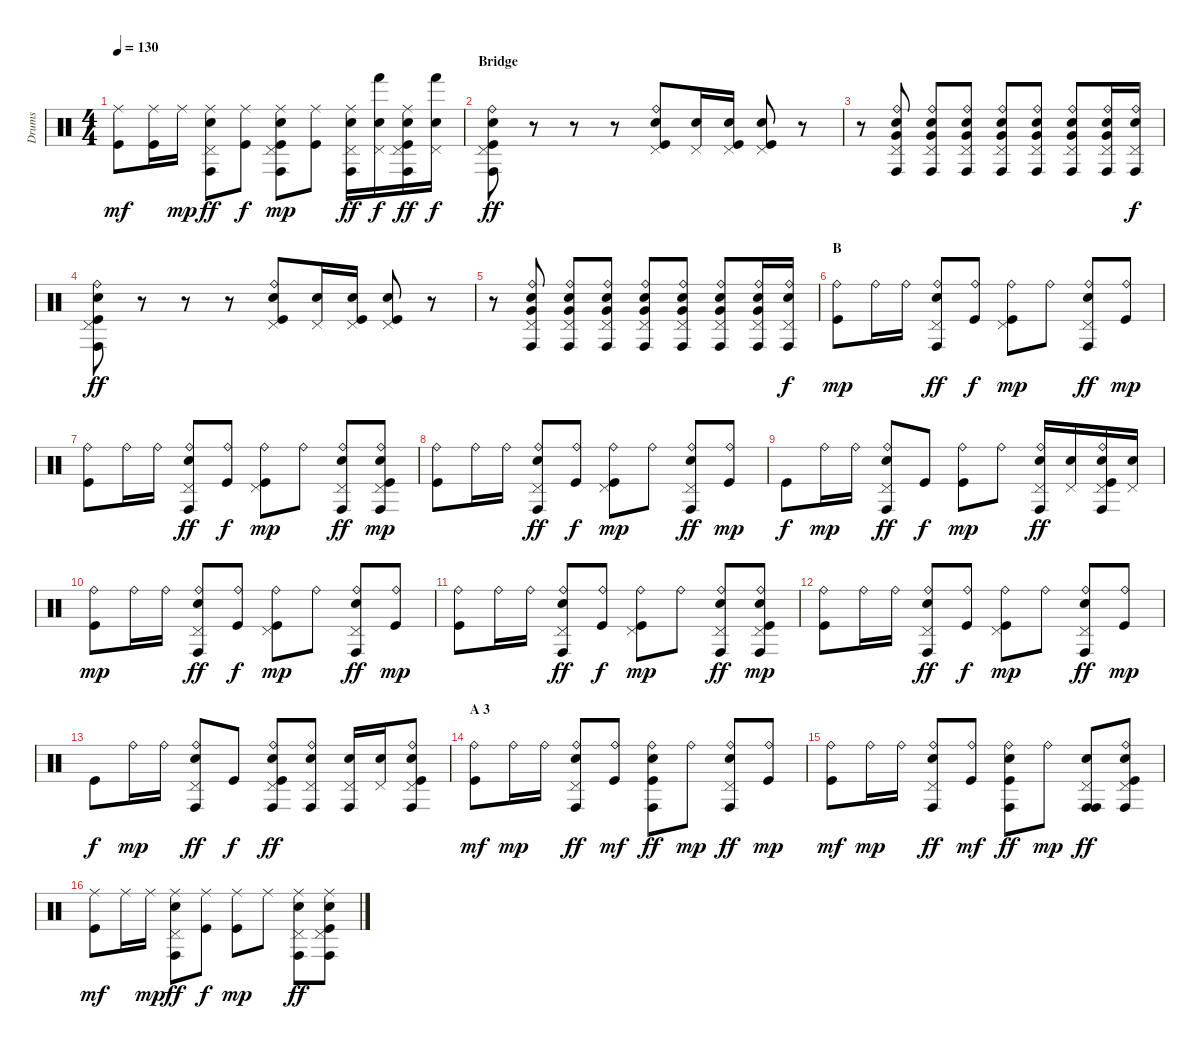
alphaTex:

\track ("Drums" "Drums") {instrument percussion}
\staff {score}
\articulation defaults
\ts (4 4)
\tempo 130
\clef neutral
\ks c
("Ride (middle)" "Kick (hit)").8{dy mf} ("Ride (middle)" "Kick (hit)").16 "Ride (middle)".16{dy mp} ("Ride (middle)" "Pedal Hi-Hat (hit)" "Conga high (hit)" "Electric Snare (hit)").8{dy ff} ("Ride (middle)" "Kick (hit)").8{dy f} ("Ride (middle)" "Pedal Hi-Hat (hit)" "Conga high (hit)" "Electric Snare (hit)" "Kick (hit)").8{dy mp} ("Ride (middle)" "Kick (hit)").8 ("Ride (middle)" "Pedal Hi-Hat (hit)" "Conga high (hit)" "Electric Snare (hit)").16{dy ff} ("Pedal Hi-Hat (hit)" "Hand (hit)" "Electric Snare (hit)").16{dy f} ("Ride (middle)" "Pedal Hi-Hat (hit)" "Conga high (hit)" "Electric Snare (hit)" "Kick (hit)").16{dy ff} ("Pedal Hi-Hat (hit)" "Hand (hit)" "Electric Snare (hit)").16{dy f} |
\section ("" "Bridge")
("Ride (bell)" "Pedal Hi-Hat (hit)" "Conga high (hit)" "Electric Snare (hit)" "Kick (hit)").8{dy ff} r.8 r.8 r.8 ("Ride (bell)" "Pedal Hi-Hat (hit)" "Electric Snare (hit)" "Kick (hit)").8 ("Pedal Hi-Hat (hit)" "Electric Snare (hit)").16 ("Pedal Hi-Hat (hit)" "Electric Snare (hit)" "Kick (hit)").16 ("Pedal Hi-Hat (hit)" "Electric Snare (hit)" "Kick (hit)").8 r.8 |
r.8 ("Ride (bell)" "Pedal Hi-Hat (hit)" "Conga high (hit)" "Electric Snare (hit)" "Very Low Tom (hit)").8 ("Ride (bell)" "Pedal Hi-Hat (hit)" "Conga high (hit)" "Electric Snare (hit)" "Very Low Tom (hit)").8 ("Ride (bell)" "Pedal Hi-Hat (hit)" "Conga high (hit)" "Electric Snare (hit)" "Very Low Tom (hit)").8 ("Ride (bell)" "Pedal Hi-Hat (hit)" "Conga high (hit)" "Electric Snare (hit)" "Very Low Tom (hit)").8 ("Ride (bell)" "Pedal Hi-Hat (hit)" "Conga high (hit)" "Electric Snare (hit)" "Very Low Tom (hit)").8 ("Ride (bell)" "Pedal Hi-Hat (hit)" "Conga high (hit)" "Electric Snare (hit)" "Very Low Tom (hit)").8 ("Ride (bell)" "Pedal Hi-Hat (hit)" "Conga high (hit)" "Electric Snare (hit)" "Very Low Tom (hit)").16 ("Ride (bell)" "Pedal Hi-Hat (hit)" "Conga high (hit)" "Electric Snare (hit)").16{dy f} |
("Ride (bell)" "Pedal Hi-Hat (hit)" "Conga high (hit)" "Electric Snare (hit)" "Kick (hit)").8{dy ff} r.8 r.8 r.8 ("Ride (bell)" "Pedal Hi-Hat (hit)" "Electric Snare (hit)" "Kick (hit)").8 ("Pedal Hi-Hat (hit)" "Electric Snare (hit)").16 ("Pedal Hi-Hat (hit)" "Electric Snare (hit)" "Kick (hit)").16 ("Pedal Hi-Hat (hit)" "Electric Snare (hit)" "Kick (hit)").8 r.8 |
r.8 ("Ride (bell)" "Pedal Hi-Hat (hit)" "Conga high (hit)" "Electric Snare (hit)" "Very Low Tom (hit)").8 ("Ride (bell)" "Pedal Hi-Hat (hit)" "Conga high (hit)" "Electric Snare (hit)" "Very Low Tom (hit)").8 ("Ride (bell)" "Pedal Hi-Hat (hit)" "Conga high (hit)" "Electric Snare (hit)" "Very Low Tom (hit)").8 ("Ride (bell)" "Pedal Hi-Hat (hit)" "Conga high (hit)" "Electric Snare (hit)" "Very Low Tom (hit)").8 ("Ride (bell)" "Pedal Hi-Hat (hit)" "Conga high (hit)" "Electric Snare (hit)" "Very Low Tom (hit)").8 ("Ride (bell)" "Pedal Hi-Hat (hit)" "Conga high (hit)" "Electric Snare (hit)" "Very Low Tom (hit)").8 ("Ride (bell)" "Pedal Hi-Hat (hit)" "Conga high (hit)" "Electric Snare (hit)" "Very Low Tom (hit)").16 ("Ride (bell)" "Pedal Hi-Hat (hit)" "Conga high (hit)" "Electric Snare (hit)").16{dy f} |
\section ("" "B")
("Ride (bell)" "Kick (hit)").8{dy mp} "Ride (bell)".16 "Ride (bell)".16 ("Ride (bell)" "Pedal Hi-Hat (hit)" "Conga high (hit)" "Electric Snare (hit)").8{dy ff} ("Ride (bell)" "Kick (hit)").8{dy f} ("Ride (bell)" "Pedal Hi-Hat (hit)" "Kick (hit)").8{dy mp} "Ride (bell)".8 ("Ride (bell)" "Pedal Hi-Hat (hit)" "Conga high (hit)" "Electric Snare (hit)").8{dy ff} ("Ride (bell)" "Kick (hit)").8{dy mp} |
("Ride (bell)" "Kick (hit)").8 "Ride (bell)".16 "Ride (bell)".16 ("Ride (bell)" "Pedal Hi-Hat (hit)" "Conga high (hit)" "Electric Snare (hit)").8{dy ff} ("Ride (bell)" "Kick (hit)").8{dy f} ("Ride (bell)" "Pedal Hi-Hat (hit)" "Kick (hit)").8{dy mp} "Ride (bell)".8 ("Ride (bell)" "Pedal Hi-Hat (hit)" "Conga high (hit)" "Electric Snare (hit)").8{dy ff} ("Ride (bell)" "Pedal Hi-Hat (hit)" "Conga high (hit)" "Electric Snare (hit)" "Kick (hit)").8{dy mp} |
("Ride (bell)" "Kick (hit)").8 "Ride (bell)".16 "Ride (bell)".16 ("Ride (bell)" "Pedal Hi-Hat (hit)" "Conga high (hit)" "Electric Snare (hit)").8{dy ff} ("Ride (bell)" "Kick (hit)").8{dy f} ("Ride (bell)" "Pedal Hi-Hat (hit)" "Kick (hit)").8{dy mp} "Ride (bell)".8 ("Ride (bell)" "Pedal Hi-Hat (hit)" "Conga high (hit)" "Electric Snare (hit)").8{dy ff} ("Ride (bell)" "Kick (hit)").8{dy mp} |
"Kick (hit)".8{dy f} "Ride (bell)".16{dy mp} "Ride (bell)".16 ("Ride (bell)" "Pedal Hi-Hat (hit)" "Conga high (hit)" "Electric Snare (hit)").8{dy ff} "Kick (hit)".8{dy f} ("Ride (bell)" "Kick (hit)").8{dy mp} "Ride (bell)".8 ("Ride (bell)" "Pedal Hi-Hat (hit)" "Conga high (hit)" "Electric Snare (hit)").16{dy ff} ("Pedal Hi-Hat (hit)" "Electric Snare (hit)").16 ("Ride (bell)" "Pedal Hi-Hat (hit)" "Conga high (hit)" "Electric Snare (hit)" "Kick (hit)").16 ("Pedal Hi-Hat (hit)" "Electric Snare (hit)").16 |
("Ride (bell)" "Kick (hit)").8{dy mp} "Ride (bell)".16 "Ride (bell)".16 ("Ride (bell)" "Pedal Hi-Hat (hit)" "Conga high (hit)" "Electric Snare (hit)").8{dy ff} ("Ride (bell)" "Kick (hit)").8{dy f} ("Ride (bell)" "Pedal Hi-Hat (hit)" "Kick (hit)").8{dy mp} "Ride (bell)".8 ("Ride (bell)" "Pedal Hi-Hat (hit)" "Conga high (hit)" "Electric Snare (hit)").8{dy ff} ("Ride (bell)" "Kick (hit)").8{dy mp} |
("Ride (bell)" "Kick (hit)").8 "Ride (bell)".16 "Ride (bell)".16 ("Ride (bell)" "Pedal Hi-Hat (hit)" "Conga high (hit)" "Electric Snare (hit)").8{dy ff} ("Ride (bell)" "Kick (hit)").8{dy f} ("Ride (bell)" "Pedal Hi-Hat (hit)" "Kick (hit)").8{dy mp} "Ride (bell)".8 ("Ride (bell)" "Pedal Hi-Hat (hit)" "Conga high (hit)" "Electric Snare (hit)").8{dy ff} ("Ride (bell)" "Pedal Hi-Hat (hit)" "Conga high (hit)" "Electric Snare (hit)" "Kick (hit)").8{dy mp} |
("Ride (bell)" "Kick (hit)").8 "Ride (bell)".16 "Ride (bell)".16 ("Ride (bell)" "Pedal Hi-Hat (hit)" "Conga high (hit)" "Electric Snare (hit)").8{dy ff} ("Ride (bell)" "Kick (hit)").8{dy f} ("Ride (bell)" "Pedal Hi-Hat (hit)" "Kick (hit)").8{dy mp} "Ride (bell)".8 ("Ride (bell)" "Pedal Hi-Hat (hit)" "Conga high (hit)" "Electric Snare (hit)").8{dy ff} ("Ride (bell)" "Kick (hit)").8{dy mp} |
"Kick (hit)".8{dy f} "Ride (bell)".16{dy mp} "Ride (bell)".16 ("Ride (bell)" "Pedal Hi-Hat (hit)" "Conga high (hit)" "Electric Snare (hit)").8{dy ff} "Kick (hit)".8{dy f} ("Ride (bell)" "Pedal Hi-Hat (hit)" "Conga high (hit)" "Electric Snare (hit)" "Kick (hit)").8{dy ff} ("Ride (bell)" "Pedal Hi-Hat (hit)" "Conga high (hit)" "Electric Snare (hit)").8 ("Pedal Hi-Hat (hit)" "Conga high (hit)" "Electric Snare (hit)").16 ("Pedal Hi-Hat (hit)" "Electric Snare (hit)").16 ("Ride (bell)" "Pedal Hi-Hat (hit)" "Conga high (hit)" "Electric Snare (hit)" "Kick (hit)").8 |
\section ("" "A 3")
("Ride (bell)" "Kick (hit)").8{dy mf} "Ride (bell)".16{dy mp} "Ride (bell)".16 ("Ride (bell)" "Pedal Hi-Hat (hit)" "Conga high (hit)" "Electric Snare (hit)").8{dy ff} ("Ride (bell)" "Kick (hit)").8{dy mf} ("Ride (bell)" "Conga high (hit)" "Electric Snare (hit)" "Kick (hit)").8{dy ff} "Ride (bell)".8{dy mp} ("Ride (bell)" "Pedal Hi-Hat (hit)" "Conga high (hit)" "Electric Snare (hit)").8{dy ff} ("Ride (bell)" "Kick (hit)").8{dy mp} |
("Ride (bell)" "Kick (hit)").8{dy mf} "Ride (bell)".16{dy mp} "Ride (bell)".16 ("Ride (bell)" "Pedal Hi-Hat (hit)" "Conga high (hit)" "Electric Snare (hit)").8{dy ff} ("Ride (bell)" "Kick (hit)").8{dy mf} ("Ride (bell)" "Conga high (hit)" "Electric Snare (hit)" "Kick (hit)").8{dy ff} "Ride (bell)".8{dy mp} ("Conga high (hit)" "Pedal Hi-Hat (hit)" "Conga high (hit)" "Electric Snare (hit)").8{dy ff} ("Ride (bell)" "Pedal Hi-Hat (hit)" "Conga high (hit)" "Electric Snare (hit)" "Kick (hit)").8 |
("Ride (middle)" "Kick (hit)").8{dy mf} "Ride (middle)".16 "Ride (middle)".16{dy mp} ("Ride (middle)" "Pedal Hi-Hat (hit)" "Conga high (hit)" "Electric Snare (hit)").8{dy ff} ("Ride (middle)" "Kick (hit)").8{dy f} ("Ride (middle)" "Kick (hit)").8{dy mp} "Ride (middle)".8 ("Ride (middle)" "Pedal Hi-Hat (hit)" "Conga high (hit)" "Electric Snare (hit)").8{dy ff} ("Ride (middle)" "Pedal Hi-Hat (hit)" "Conga high (hit)" "Electric Snare (hit)" "Kick (hit)").8
